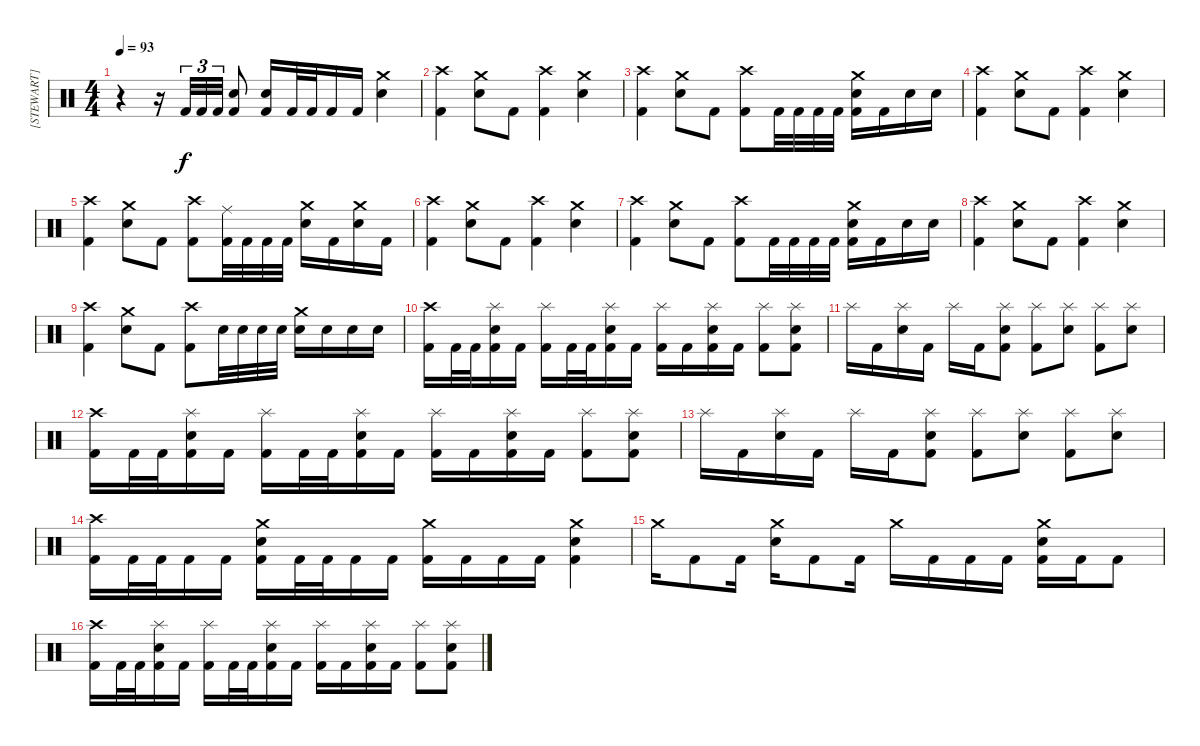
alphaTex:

\track ("[STEWART]" "[STEWART]") {instrument percussion}
\staff {score}
\articulation defaults
\ts (4 4)
\tempo 93
\clef neutral
\ks c
r.4{dy f} r.16 "Kick (hit) 2".32{tu (3 2)} "Kick (hit) 2".32{tu (3 2)} "Kick (hit) 2".32{tu (3 2)} ("Electric Snare (hit)" "Kick (hit) 2").8 ("Electric Snare (hit)" "Kick (hit) 2").16 "Kick (hit) 2".32 "Kick (hit) 2".32 "Kick (hit) 2".16 "Kick (hit) 2".16 ("Crash medium (hit)" "Electric Snare (hit)").4 |
("Crash high (hit)" "Kick (hit) 2").4 ("Crash medium (hit)" "Electric Snare (hit)").8 "Kick (hit) 2".8 ("Crash high (hit)" "Kick (hit) 2").4 ("Crash medium (hit)" "Electric Snare (hit)").4 |
("Crash high (hit)" "Kick (hit) 2").4 ("Crash medium (hit)" "Electric Snare (hit)").8 "Kick (hit) 2".8 ("Crash high (hit)" "Kick (hit) 2").8 "Kick (hit) 2".32 "Kick (hit) 2".32 "Kick (hit) 2".32 "Kick (hit) 2".32 ("Crash medium (hit)" "Electric Snare (hit)" "Kick (hit) 2").16 "Kick (hit) 2".16 "Electric Snare (hit)".16 "Electric Snare (hit)".16 |
("Crash high (hit)" "Kick (hit) 2").4 ("Crash medium (hit)" "Electric Snare (hit)").8 "Kick (hit) 2".8 ("Crash high (hit)" "Kick (hit) 2").4 ("Crash medium (hit)" "Electric Snare (hit)").4 |
("Crash high (hit)" "Kick (hit) 2").4 ("Crash medium (hit)" "Electric Snare (hit)").8 "Kick (hit) 2".8 ("Crash high (hit)" "Kick (hit) 2").8 ("Ride (middle)" "Kick (hit) 2").32 "Kick (hit) 2".32 "Kick (hit) 2".32 "Kick (hit) 2".32 ("Crash medium (hit)" "Electric Snare (hit)").16 "Kick (hit) 2".16 ("Crash medium (hit)" "Electric Snare (hit)").16 "Kick (hit) 2".16 |
("Crash high (hit)" "Kick (hit) 2").4 ("Crash medium (hit)" "Electric Snare (hit)").8 "Kick (hit) 2".8 ("Crash high (hit)" "Kick (hit) 2").4 ("Crash medium (hit)" "Electric Snare (hit)").4 |
("Crash high (hit)" "Kick (hit) 2").4 ("Crash medium (hit)" "Electric Snare (hit)").8 "Kick (hit) 2".8 ("Crash high (hit)" "Kick (hit) 2").8 "Kick (hit) 2".32 "Kick (hit) 2".32 "Kick (hit) 2".32 "Kick (hit) 2".32 ("Crash medium (hit)" "Electric Snare (hit)" "Kick (hit) 2").16 "Kick (hit) 2".16 "Electric Snare (hit)".16 "Electric Snare (hit)".16 |
("Crash high (hit)" "Kick (hit) 2").4 ("Crash medium (hit)" "Electric Snare (hit)").8 "Kick (hit) 2".8 ("Crash high (hit)" "Kick (hit) 2").4 ("Crash medium (hit)" "Electric Snare (hit)").4 |
("Crash high (hit)" "Kick (hit) 2").4 ("Crash medium (hit)" "Electric Snare (hit)").8 "Kick (hit) 2".8 ("Crash high (hit)" "Kick (hit) 2").8 "Electric Snare (hit)".32 "Electric Snare (hit)".32 "Electric Snare (hit)".32 "Electric Snare (hit)".32 ("Crash medium (hit)" "Electric Snare (hit)").16 "Electric Snare (hit)".16 "Electric Snare (hit)".16 "Electric Snare (hit)".16 |
("Crash high (hit)" "Kick (hit) 2").16 "Kick (hit) 2".32 "Kick (hit) 2".32 ("Splash (hit)" "Electric Snare (hit)" "Kick (hit) 2").16 "Kick (hit) 2".16 ("Splash (hit)" "Kick (hit) 2").16 "Kick (hit) 2".32 "Kick (hit) 2".32 ("Splash (hit)" "Electric Snare (hit)" "Kick (hit) 2").16 "Kick (hit) 2".16 ("Splash (hit)" "Kick (hit) 2").16 "Kick (hit) 2".16 ("Splash (hit)" "Electric Snare (hit)" "Kick (hit) 2").16 "Kick (hit) 2".16 ("Splash (hit)" "Kick (hit) 2").8 ("Splash (hit)" "Electric Snare (hit)" "Kick (hit) 2").8 |
"Splash (hit)".16 "Kick (hit) 2".16 ("Splash (hit)" "Electric Snare (hit)").16 "Kick (hit) 2".16 "Splash (hit)".16 "Kick (hit) 2".16 ("Splash (hit)" "Electric Snare (hit)" "Kick (hit) 2").8 ("Splash (hit)" "Kick (hit) 2").8 ("Splash (hit)" "Electric Snare (hit)").8 ("Splash (hit)" "Kick (hit) 2").8 ("Splash (hit)" "Electric Snare (hit)").8 |
("Crash high (hit)" "Kick (hit) 2").16 "Kick (hit) 2".32 "Kick (hit) 2".32 ("Splash (hit)" "Electric Snare (hit)" "Kick (hit) 2").16 "Kick (hit) 2".16 ("Splash (hit)" "Kick (hit) 2").16 "Kick (hit) 2".32 "Kick (hit) 2".32 ("Splash (hit)" "Electric Snare (hit)" "Kick (hit) 2").16 "Kick (hit) 2".16 ("Splash (hit)" "Kick (hit) 2").16 "Kick (hit) 2".16 ("Splash (hit)" "Electric Snare (hit)" "Kick (hit) 2").16 "Kick (hit) 2".16 ("Splash (hit)" "Kick (hit) 2").8 ("Splash (hit)" "Electric Snare (hit)" "Kick (hit) 2").8 |
"Splash (hit)".16 "Kick (hit) 2".16 ("Splash (hit)" "Electric Snare (hit)").16 "Kick (hit) 2".16 "Splash (hit)".16 "Kick (hit) 2".16 ("Splash (hit)" "Electric Snare (hit)" "Kick (hit) 2").8 ("Splash (hit)" "Kick (hit) 2").8 ("Splash (hit)" "Electric Snare (hit)").8 ("Splash (hit)" "Kick (hit) 2").8 ("Splash (hit)" "Electric Snare (hit)").8 |
("Crash high (hit)" "Kick (hit) 2").16 "Kick (hit) 2".32 "Kick (hit) 2".32 "Kick (hit) 2".16 "Kick (hit) 2".16 ("Crash medium (hit)" "Electric Snare (hit)" "Kick (hit) 2").16 "Kick (hit) 2".32 "Kick (hit) 2".32 "Kick (hit) 2".16 "Kick (hit) 2".16 ("Crash medium (hit)" "Kick (hit) 2").16 "Kick (hit) 2".16 "Kick (hit) 2".16 "Kick (hit) 2".16 ("Crash medium (hit)" "Electric Snare (hit)" "Kick (hit) 2").4 |
"Crash medium (hit)".16 "Kick (hit) 2".8 "Kick (hit) 2".16 ("Crash medium (hit)" "Electric Snare (hit)").16 "Kick (hit) 2".8 "Kick (hit) 2".16 "Crash medium (hit)".16 "Kick (hit) 2".16 "Kick (hit) 2".16 "Kick (hit) 2".16 ("Crash medium (hit)" "Electric Snare (hit)" "Kick (hit) 2").16 "Kick (hit) 2".16 "Kick (hit) 2".8 |
("Crash high (hit)" "Kick (hit) 2").16 "Kick (hit) 2".32 "Kick (hit) 2".32 ("Splash (hit)" "Electric Snare (hit)" "Kick (hit) 2").16 "Kick (hit) 2".16 ("Splash (hit)" "Kick (hit) 2").16 "Kick (hit) 2".32 "Kick (hit) 2".32 ("Splash (hit)" "Electric Snare (hit)" "Kick (hit) 2").16 "Kick (hit) 2".16 ("Splash (hit)" "Kick (hit) 2").16 "Kick (hit) 2".16 ("Splash (hit)" "Electric Snare (hit)" "Kick (hit) 2").16 "Kick (hit) 2".16 ("Splash (hit)" "Kick (hit) 2").8 ("Splash (hit)" "Electric Snare (hit)" "Kick (hit) 2").8
